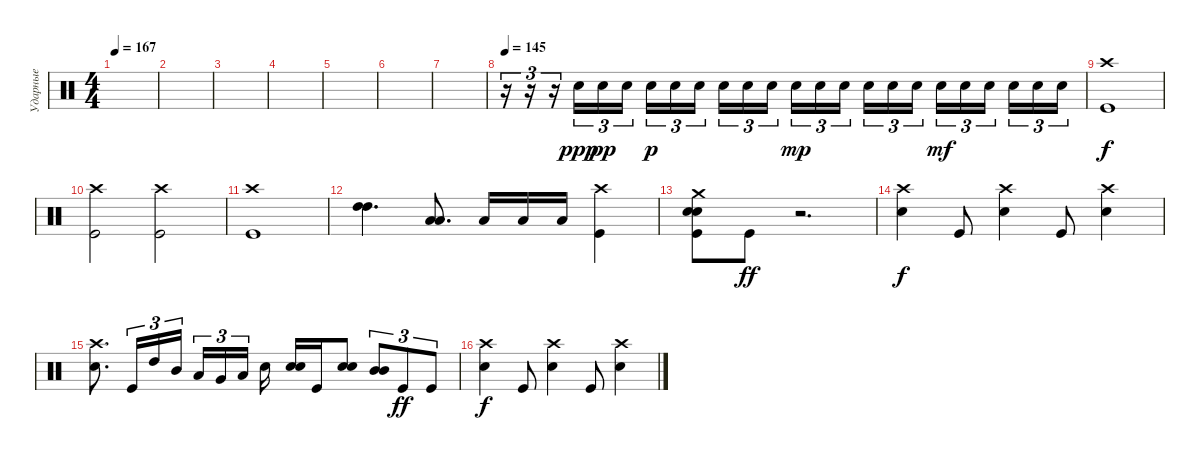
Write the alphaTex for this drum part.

\track ("Ударные" "Ударные") {instrument percussion}
\staff {score}
\articulation defaults
\ts (4 4)
\tempo 167
\clef neutral
\ks c
|
|
|
|
|
|
|
\tempo 145
r.16{tu (3 2)} r.16{tu (3 2)} r.16{tu (3 2)} "Snare (hit) 2".16{tu (3 2) dy ppp} "Snare (hit) 2".16{tu (3 2) dy pp} "Snare (hit) 2".16{tu (3 2)} "Snare (hit) 2".16{tu (3 2) dy p} "Snare (hit) 2".16{tu (3 2)} "Snare (hit) 2".16{tu (3 2) beam splitsecondary} "Snare (hit) 2".16{tu (3 2)} "Snare (hit) 2".16{tu (3 2)} "Snare (hit) 2".16{tu (3 2)} "Snare (hit) 2".16{tu (3 2) dy mp} "Snare (hit) 2".16{tu (3 2)} "Snare (hit) 2".16{tu (3 2) beam splitsecondary} "Snare (hit) 2".16{tu (3 2)} "Snare (hit) 2".16{tu (3 2)} "Snare (hit) 2".16{tu (3 2)} "Snare (hit) 2".16{tu (3 2) dy mf} "Snare (hit) 2".16{tu (3 2)} "Snare (hit) 2".16{tu (3 2) beam splitsecondary} "Snare (hit) 2".16{tu (3 2)} "Snare (hit) 2".16{tu (3 2)} "Snare (hit) 2".16{tu (3 2)} |
("Crash high (hit)" "Kick (hit)").1{dy f} |
("Crash high (hit)" "Kick (hit)").2 ("Crash high (hit)" "Kick (hit)").2 |
("Crash high (hit)" "Kick (hit)").1 |
("High Tom (hit)" "High Tom (hit)").4{d bd 60} ("Low Tom (hit)" "Low Tom (hit)").8{d bd 60} "Low Tom (hit)".16 "Low Tom (hit)".16 "Low Tom (hit)".16 ("Crash high (hit)" "Kick (hit)").4 |
("Crash medium (hit)" "Snare (hit) 2" "Snare (hit) 2" "Kick (hit)").8{bd 60} "Kick (hit)".8{dy ff} r.2{d} |
("Crash high (hit)" "Snare (hit) 2").4{dy f} "Kick (hit)".8 ("Crash high (hit)" "Snare (hit) 2").4 "Kick (hit)".8 ("Crash high (hit)" "Snare (hit) 2").4 |
("Crash high (hit)" "Snare (hit) 2").8{d} "Kick (hit)".16{tu (3 2)} "High Tom (hit)".16{tu (3 2)} "Mid Tom (hit)".16{tu (3 2) beam splitsecondary} "Low Tom (hit)".16{tu (3 2)} "Very Low Tom (hit)".16{tu (3 2)} "Low Floor Tom (hit)".16{tu (3 2) beam splitsecondary} "Snare (hit) 2".16 ("Snare (hit) 2" "Snare (hit) 2").16{bd 60} "Kick (hit)".16 ("Snare (hit) 2" "Snare (hit) 2").8{bd 60} ("Mid Tom (hit)" "Mid Tom (hit)").8{tu (3 2) bd 60} "Kick (hit)".8{tu (3 2) dy ff} "Kick (hit)".8{tu (3 2)} |
("Crash high (hit)" "Snare (hit) 2").4{dy f} "Kick (hit)".8 ("Crash high (hit)" "Snare (hit) 2").4 "Kick (hit)".8 ("Crash high (hit)" "Snare (hit) 2").4
